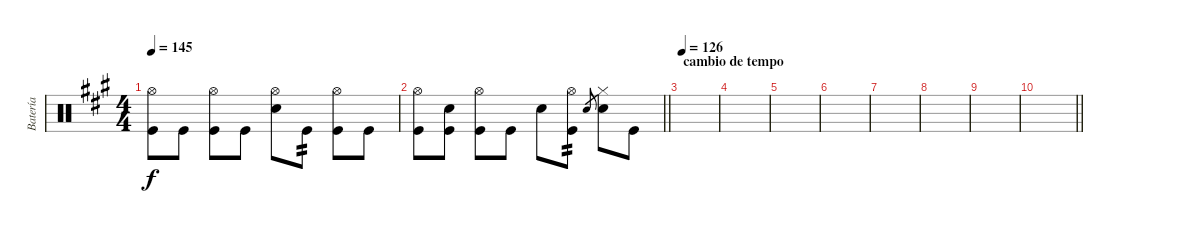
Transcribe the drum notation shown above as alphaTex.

\track ("Batería" "Batería") {instrument percussion}
\staff {score}
\articulation defaults
\ts (4 4)
\tempo 145
\clef neutral
\ks a
("Hi-Hat (open)" "Kick (hit)").8{dy f} "Kick (hit)".8 ("Hi-Hat (open)" "Kick (hit)").8 "Kick (hit)".8 ("Hi-Hat (open)" "Electric Snare (hit)").8 "Kick (hit)".8{tp 2} ("Hi-Hat (open)" "Kick (hit)").8 "Kick (hit)".8 |
\barLineRight lightlight
("Hi-Hat (open)" "Kick (hit)").8 ("Electric Snare (hit)" "Kick (hit)").8 ("Hi-Hat (open)" "Kick (hit)").8 "Kick (hit)".8 "Electric Snare (hit)".8 ("Hi-Hat (open)" "Kick (hit)").8{tp 2} "Electric Snare (hit)".8{gr} ("Hi-Hat (closed)" "Electric Snare (hit)").8 "Kick (hit)".8 |
\section ("" "cambio de tempo")
\tempo 126
|
|
|
|
|
|
|
\barLineRight lightlight
